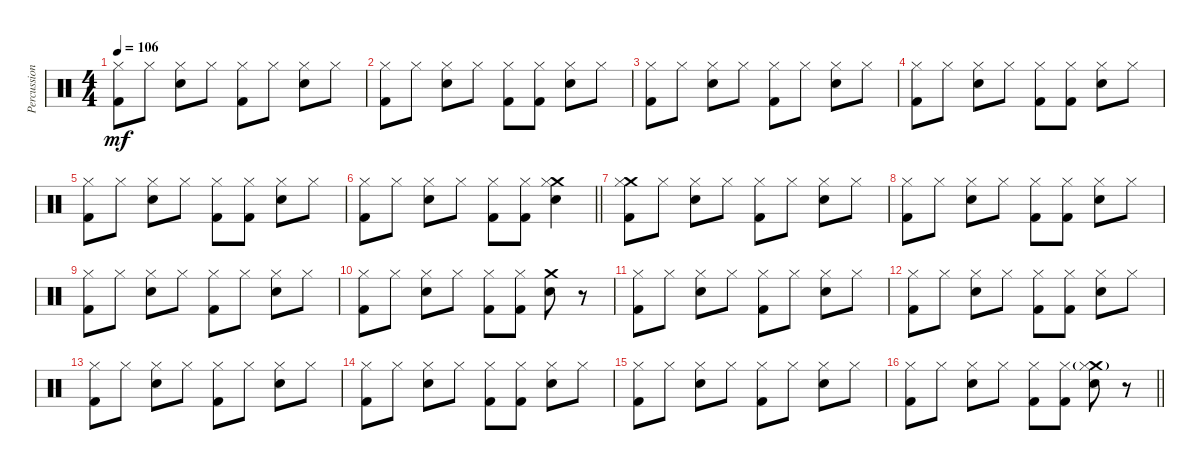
\track ("Percussion" "Percussion") {instrument percussion}
\staff {score}
\articulation defaults
\ts (4 4)
\tempo 106
\clef neutral
\ks c
("Hi-Hat (closed)" "Kick (hit) 2").8{dy mf} "Hi-Hat (closed)".8 ("Hi-Hat (closed)" "Electric Snare (hit)").8 "Hi-Hat (closed)".8 ("Hi-Hat (closed)" "Kick (hit) 2").8 "Hi-Hat (closed)".8 ("Hi-Hat (closed)" "Electric Snare (hit)").8 "Hi-Hat (closed)".8 |
("Hi-Hat (closed)" "Kick (hit) 2").8 "Hi-Hat (closed)".8 ("Hi-Hat (closed)" "Electric Snare (hit)").8 "Hi-Hat (closed)".8 ("Hi-Hat (closed)" "Kick (hit) 2").8 ("Hi-Hat (closed)" "Kick (hit) 2").8 ("Hi-Hat (closed)" "Electric Snare (hit)").8 "Hi-Hat (closed)".8 |
("Hi-Hat (closed)" "Kick (hit) 2").8 "Hi-Hat (closed)".8 ("Hi-Hat (closed)" "Electric Snare (hit)").8 "Hi-Hat (closed)".8 ("Hi-Hat (closed)" "Kick (hit) 2").8 "Hi-Hat (closed)".8 ("Hi-Hat (closed)" "Electric Snare (hit)").8 "Hi-Hat (closed)".8 |
("Hi-Hat (closed)" "Kick (hit) 2").8 "Hi-Hat (closed)".8 ("Hi-Hat (closed)" "Electric Snare (hit)").8 "Hi-Hat (closed)".8 ("Hi-Hat (closed)" "Kick (hit) 2").8 ("Hi-Hat (closed)" "Kick (hit) 2").8 ("Hi-Hat (closed)" "Electric Snare (hit)").8 "Hi-Hat (closed)".8 |
("Hi-Hat (closed)" "Kick (hit) 2").8 "Hi-Hat (closed)".8 ("Hi-Hat (closed)" "Electric Snare (hit)").8 "Hi-Hat (closed)".8 ("Hi-Hat (closed)" "Kick (hit) 2").8 ("Hi-Hat (closed)" "Kick (hit) 2").8 ("Hi-Hat (closed)" "Electric Snare (hit)").8 "Hi-Hat (closed)".8 |
\barLineRight lightlight
("Hi-Hat (closed)" "Kick (hit) 2").8 "Hi-Hat (closed)".8 ("Hi-Hat (closed)" "Electric Snare (hit)").8 "Hi-Hat (closed)".8 ("Hi-Hat (closed)" "Kick (hit) 2").8 ("Hi-Hat (closed)" "Kick (hit) 2").8 ("Crash medium (hit)" "Hi-Hat (closed)" "Electric Snare (hit)").4 |
("Crash medium (hit)" "Hi-Hat (closed)" "Kick (hit) 2").8 "Hi-Hat (closed)".8 ("Hi-Hat (closed)" "Electric Snare (hit)").8 "Hi-Hat (closed)".8 ("Hi-Hat (closed)" "Kick (hit) 2").8 "Hi-Hat (closed)".8 ("Hi-Hat (closed)" "Electric Snare (hit)").8 "Hi-Hat (closed)".8 |
("Hi-Hat (closed)" "Kick (hit) 2").8 "Hi-Hat (closed)".8 ("Hi-Hat (closed)" "Electric Snare (hit)").8 "Hi-Hat (closed)".8 ("Hi-Hat (closed)" "Kick (hit) 2").8 ("Hi-Hat (closed)" "Kick (hit) 2").8 ("Hi-Hat (closed)" "Electric Snare (hit)").8 "Hi-Hat (closed)".8 |
("Hi-Hat (closed)" "Kick (hit) 2").8 "Hi-Hat (closed)".8 ("Hi-Hat (closed)" "Electric Snare (hit)").8 "Hi-Hat (closed)".8 ("Hi-Hat (closed)" "Kick (hit) 2").8 "Hi-Hat (closed)".8 ("Hi-Hat (closed)" "Electric Snare (hit)").8 "Hi-Hat (closed)".8 |
("Hi-Hat (closed)" "Kick (hit) 2").8 "Hi-Hat (closed)".8 ("Hi-Hat (closed)" "Electric Snare (hit)").8 "Hi-Hat (closed)".8 ("Hi-Hat (closed)" "Kick (hit) 2").8 ("Hi-Hat (closed)" "Kick (hit) 2").8 ("Crash medium (hit)" "Electric Snare (hit)").8 r.8 |
("Hi-Hat (closed)" "Kick (hit) 2").8 "Hi-Hat (closed)".8 ("Hi-Hat (closed)" "Electric Snare (hit)").8 "Hi-Hat (closed)".8 ("Hi-Hat (closed)" "Kick (hit) 2").8 "Hi-Hat (closed)".8 ("Hi-Hat (closed)" "Electric Snare (hit)").8 "Hi-Hat (closed)".8 |
("Hi-Hat (closed)" "Kick (hit) 2").8 "Hi-Hat (closed)".8 ("Hi-Hat (closed)" "Electric Snare (hit)").8 "Hi-Hat (closed)".8 ("Hi-Hat (closed)" "Kick (hit) 2").8 ("Hi-Hat (closed)" "Kick (hit) 2").8 ("Hi-Hat (closed)" "Electric Snare (hit)").8 "Hi-Hat (closed)".8 |
("Hi-Hat (closed)" "Kick (hit) 2").8 "Hi-Hat (closed)".8 ("Hi-Hat (closed)" "Electric Snare (hit)").8 "Hi-Hat (closed)".8 ("Hi-Hat (closed)" "Kick (hit) 2").8 "Hi-Hat (closed)".8 ("Hi-Hat (closed)" "Electric Snare (hit)").8 "Hi-Hat (closed)".8 |
("Hi-Hat (closed)" "Kick (hit) 2").8 "Hi-Hat (closed)".8 ("Hi-Hat (closed)" "Electric Snare (hit)").8 "Hi-Hat (closed)".8 ("Hi-Hat (closed)" "Kick (hit) 2").8 ("Hi-Hat (closed)" "Kick (hit) 2").8 ("Hi-Hat (closed)" "Electric Snare (hit)").8 "Hi-Hat (closed)".8 |
("Hi-Hat (closed)" "Kick (hit) 2").8 "Hi-Hat (closed)".8 ("Hi-Hat (closed)" "Electric Snare (hit)").8 "Hi-Hat (closed)".8 ("Hi-Hat (closed)" "Kick (hit) 2").8 "Hi-Hat (closed)".8 ("Hi-Hat (closed)" "Electric Snare (hit)").8 "Hi-Hat (closed)".8 |
\barLineRight lightlight
("Hi-Hat (closed)" "Kick (hit) 2").8 "Hi-Hat (closed)".8 ("Hi-Hat (closed)" "Electric Snare (hit)").8 "Hi-Hat (closed)".8 ("Hi-Hat (closed)" "Kick (hit) 2").8 ("Hi-Hat (closed)" "Kick (hit) 2").8 ("Crash medium (hit)"{g} "Hi-Hat (closed)" "Electric Snare (hit)").8 r.8
